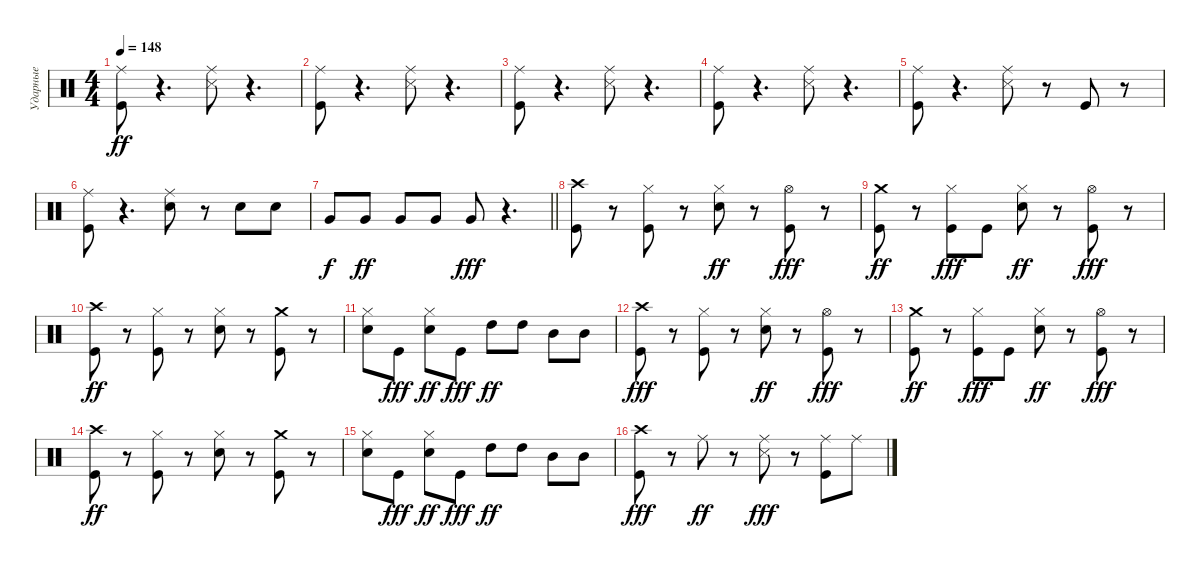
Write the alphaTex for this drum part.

\track ("Ударные" "Ударные") {instrument percussion}
\staff {score}
\articulation defaults
\ts (4 4)
\tempo 148
\clef neutral
\ks c
("Ride (middle)" "Kick (hit)").8{dy ff} r.4{d} ("Ride (middle)" "Snare (side stick) 3").8 r.4{d} |
("Ride (middle)" "Kick (hit)").8 r.4{d} ("Ride (middle)" "Snare (side stick) 3").8 r.4{d} |
("Ride (middle)" "Kick (hit)").8 r.4{d} ("Ride (middle)" "Snare (side stick) 3").8 r.4{d} |
("Ride (middle)" "Kick (hit)").8 r.4{d} ("Ride (middle)" "Snare (side stick) 3").8 r.4{d} |
("Ride (middle)" "Kick (hit)").8 r.4{d} ("Ride (middle)" "Snare (side stick) 3").8 r.8 "Kick (hit)".8 r.8 |
("Kick (hit)" "Ride (middle)").8 r.4{d} ("Ride (middle)" "Snare (hit) 2").8 r.8 "Snare (hit) 2".8 "Snare (hit) 2".8 |
\barLineRight lightlight "Very Low Tom (hit)".8{dy f} "Very Low Tom (hit)".8{dy ff} "Very Low Tom (hit)".8 "Very Low Tom (hit)".8 "Very Low Tom (hit)".8{dy fff}
r.4{d} |
("Crash high (hit)" "Kick (hit)").8 r.8 ("Hi-Hat (closed)" "Kick (hit)").8 r.8 ("Hi-Hat (closed)" "Snare (hit) 2").8{dy ff} r.8 ("Hi-Hat (open)" "Kick (hit)").8{dy fff} r.8 |
("Kick (hit)" "Crash medium (hit)").8{dy ff} r.8 ("Hi-Hat (closed)" "Kick (hit)").8{dy fff} "Kick (hit)".8 ("Hi-Hat (closed)" "Snare (hit) 2").8{dy ff} r.8 ("Hi-Hat (open)" "Kick (hit)").8{dy fff} r.8 |
("Kick (hit)" "Crash high (hit)").8{dy ff} r.8 ("Kick (hit)" "Hi-Hat (closed)").8 r.8 ("Snare (hit) 2" "Hi-Hat (closed)").8 r.8 ("Kick (hit)" "Crash medium (hit)").8 r.8 |
("Hi-Hat (closed)" "Snare (hit) 2").8 "Kick (hit)".8{dy fff} ("Hi-Hat (closed)" "Snare (hit) 2").8{dy ff} "Kick (hit)".8{dy fff} "High Tom (hit)".8{dy ff} "High Tom (hit)".8 "Mid Tom (hit)".8 "Mid Tom (hit)".8 |
("Crash high (hit)" "Kick (hit)").8{dy fff} r.8 ("Hi-Hat (closed)" "Kick (hit)").8 r.8 ("Hi-Hat (closed)" "Snare (hit) 2").8{dy ff} r.8 ("Hi-Hat (open)" "Kick (hit)").8{dy fff} r.8 |
("Kick (hit)" "Crash medium (hit)").8{dy ff} r.8 ("Hi-Hat (closed)" "Kick (hit)").8{dy fff} "Kick (hit)".8 ("Hi-Hat (closed)" "Snare (hit) 2").8{dy ff} r.8 ("Hi-Hat (open)" "Kick (hit)").8{dy fff} r.8 |
("Kick (hit)" "Crash high (hit)").8{dy ff} r.8 ("Kick (hit)" "Hi-Hat (closed)").8 r.8 ("Snare (hit) 2" "Hi-Hat (closed)").8 r.8 ("Kick (hit)" "Crash medium (hit)").8 r.8 |
("Hi-Hat (closed)" "Snare (hit) 2").8 "Kick (hit)".8{dy fff} ("Hi-Hat (closed)" "Snare (hit) 2").8{dy ff} "Kick (hit)".8{dy fff} "High Tom (hit)".8{dy ff} "High Tom (hit)".8 "Mid Tom (hit)".8 "Mid Tom (hit)".8 |
("Kick (hit)" "Crash high (hit)").8{dy fff} r.8 "Ride (middle)".8{dy ff} r.8 ("Snare (side stick) 3" "Ride (middle)").8{dy fff} r.8 ("Kick (hit)" "Ride (middle)").8 "Ride (middle)".8
